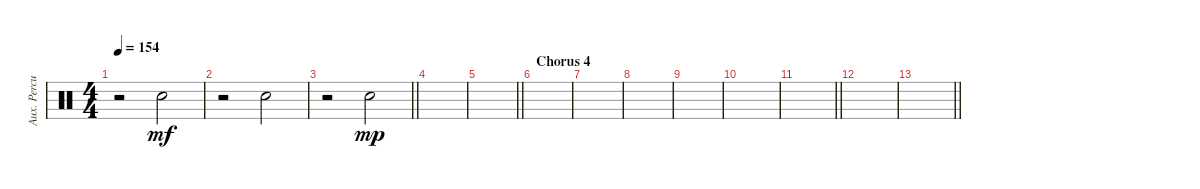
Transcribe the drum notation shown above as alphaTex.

\track ("Aux. Percussion" "Aux. Percu") {instrument percussion}
\staff {score}
\articulation defaults
\ts (4 4)
\tempo 154
\clef neutral
\ks c
r.2{dy mf} "Hand Clap (hit)".2 |
r.2 "Hand Clap (hit)".2 |
\barLineRight lightlight
r.2 "Hand Clap (hit)".2{dy mp} |
|
\barLineRight lightlight
|
\section ("" "Chorus 4")
|
|
|
|
|
\barLineRight lightlight
|
|
\barLineRight lightlight
